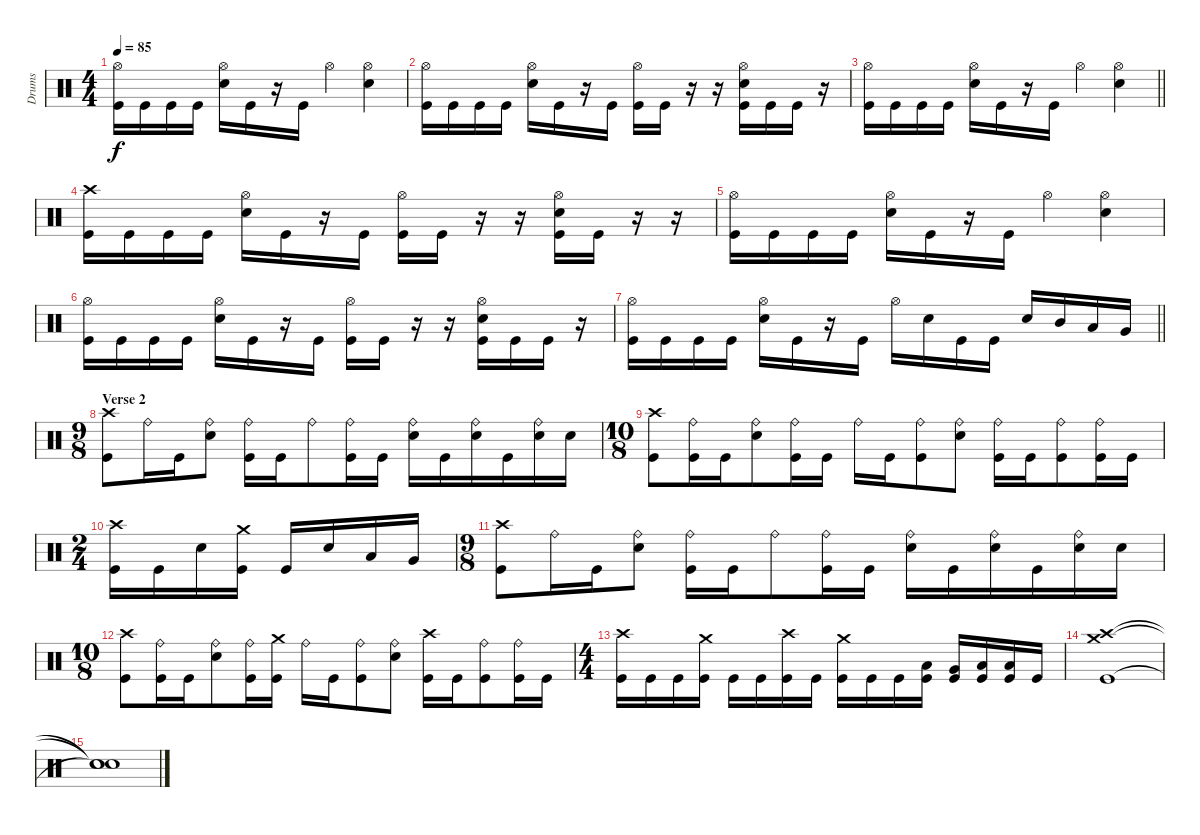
\track ("Drums" "Drums") {instrument percussion}
\staff {score}
\articulation defaults
\ts (4 4)
\tempo 85
\clef neutral
\ks c
("Hi-Hat (open)" "Kick (hit)").16{dy f} "Kick (hit)".16 "Kick (hit)".16 "Kick (hit)".16 ("Hi-Hat (open)" "Snare (hit) 2").16 "Kick (hit)".16 r.16 "Kick (hit)".16 "Hi-Hat (open)".4 ("Hi-Hat (open)" "Snare (hit) 2").4 |
("Hi-Hat (open)" "Kick (hit)").16 "Kick (hit)".16 "Kick (hit)".16 "Kick (hit)".16 ("Hi-Hat (open)" "Snare (hit) 2").16 "Kick (hit)".16 r.16 "Kick (hit)".16 ("Hi-Hat (open)" "Kick (hit)").16 "Kick (hit)".16 r.16 r.16 ("Snare (hit) 2" "Hi-Hat (open)" "Kick (hit)").16 "Kick (hit)".16 "Kick (hit)".16 r.16 |
\barLineRight lightlight
("Hi-Hat (open)" "Kick (hit)").16 "Kick (hit)".16 "Kick (hit)".16 "Kick (hit)".16 ("Hi-Hat (open)" "Snare (hit) 2").16 "Kick (hit)".16 r.16 "Kick (hit)".16 "Hi-Hat (open)".4 ("Hi-Hat (open)" "Snare (hit) 2").4 |
("Crash high (hit)" "Kick (hit)").16 "Kick (hit)".16 "Kick (hit)".16 "Kick (hit)".16 ("Hi-Hat (open)" "Snare (hit) 2").16 "Kick (hit)".16 r.16 "Kick (hit)".16 ("Hi-Hat (open)" "Kick (hit)").16 "Kick (hit)".16 r.16 r.16 ("Snare (hit) 2" "Hi-Hat (open)" "Kick (hit)").16 "Kick (hit)".16 r.16 r.16 |
("Hi-Hat (open)" "Kick (hit)").16 "Kick (hit)".16 "Kick (hit)".16 "Kick (hit)".16 ("Hi-Hat (open)" "Snare (hit) 2").16 "Kick (hit)".16 r.16 "Kick (hit)".16 "Hi-Hat (open)".4 ("Hi-Hat (open)" "Snare (hit) 2").4 |
("Hi-Hat (open)" "Kick (hit)").16 "Kick (hit)".16 "Kick (hit)".16 "Kick (hit)".16 ("Hi-Hat (open)" "Snare (hit) 2").16 "Kick (hit)".16 r.16 "Kick (hit)".16 ("Hi-Hat (open)" "Kick (hit)").16 "Kick (hit)".16 r.16 r.16 ("Snare (hit) 2" "Hi-Hat (open)" "Kick (hit)").16 "Kick (hit)".16 "Kick (hit)".16 r.16 |
\barLineRight lightlight
("Hi-Hat (open)" "Kick (hit)").16 "Kick (hit)".16 "Kick (hit)".16 "Kick (hit)".16 ("Hi-Hat (open)" "Snare (hit) 2").16 "Kick (hit)".16 r.16 "Kick (hit)".16 "Hi-Hat (open)".16 "Snare (hit) 2".16 "Kick (hit)".16 "Kick (hit)".16 "Snare (hit) 2".16 "Mid Tom (hit)".16 "Low Tom (hit)".16 "Very Low Tom (hit)".16 |
\ts (9 8)
\section ("" "Verse 2")
("Crash high (hit)" "Kick (hit)").8 "Ride (bell)".16 "Kick (hit)".16 ("Ride (bell)" "Snare (hit) 2").8 ("Ride (bell)" "Kick (hit)").16 "Kick (hit)".16 "Ride (bell)".8 ("Ride (bell)" "Kick (hit)").16 "Kick (hit)".16 ("Snare (hit) 2" "Ride (bell)").16 "Kick (hit)".16 ("Ride (bell)" "Snare (hit) 2").16 "Kick (hit)".16 ("Ride (bell)" "Snare (hit) 2").16 "Snare (hit) 2".16 |
\ts (10 8)
("Crash high (hit)" "Kick (hit)").8 ("Ride (bell)" "Kick (hit)").16 "Kick (hit)".16 ("Ride (bell)" "Snare (hit) 2").8 ("Ride (bell)" "Kick (hit)").16 "Kick (hit)".16 "Ride (bell)".16 "Kick (hit)".16 ("Ride (bell)" "Kick (hit)").8 ("Ride (bell)" "Snare (hit) 2").8 ("Ride (bell)" "Kick (hit)").16 "Kick (hit)".16 ("Ride (bell)" "Kick (hit)").8 ("Ride (bell)" "Kick (hit)").16 "Kick (hit)".16 |
\ts (2 4)
("Crash high (hit)" "Kick (hit)").16 "Kick (hit)".16 "Snare (hit) 2".16 ("Crash medium (hit)" "Kick (hit)").16 "Kick (hit)".16 "Snare (hit) 2".16 "Low Tom (hit)".16 "Very Low Tom (hit)".16 |
\ts (9 8)
("Crash high (hit)" "Kick (hit)").8 "Ride (bell)".16 "Kick (hit)".16 ("Ride (bell)" "Snare (hit) 2").8 ("Ride (bell)" "Kick (hit)").16 "Kick (hit)".16 "Ride (bell)".8 ("Ride (bell)" "Kick (hit)").16 "Kick (hit)".16 ("Snare (hit) 2" "Ride (bell)").16 "Kick (hit)".16 ("Ride (bell)" "Snare (hit) 2").16 "Kick (hit)".16 ("Ride (bell)" "Snare (hit) 2").16 "Snare (hit) 2".16 |
\ts (10 8)
("Crash high (hit)" "Kick (hit)").8 ("Ride (bell)" "Kick (hit)").16 "Kick (hit)".16 ("Ride (bell)" "Snare (hit) 2").8 ("Ride (bell)" "Kick (hit)").16 ("Crash medium (hit)" "Kick (hit)").16 "Ride (bell)".16 "Kick (hit)".16 ("Ride (bell)" "Kick (hit)").8 ("Ride (bell)" "Snare (hit) 2").8 ("Crash high (hit)" "Kick (hit)").16 "Kick (hit)".16 ("Ride (bell)" "Kick (hit)").8 ("Ride (bell)" "Kick (hit)").16 "Kick (hit)".16 |
\ts (4 4)
("Crash high (hit)" "Kick (hit)").16 "Kick (hit)".16 "Kick (hit)".16 ("Crash medium (hit)" "Kick (hit)").16 "Kick (hit)".16 "Kick (hit)".16 ("Crash high (hit)" "Kick (hit)").16 "Kick (hit)".16 ("Crash medium (hit)" "Kick (hit)").16 "Kick (hit)".16 "Kick (hit)".16 ("Low Tom (hit)" "Kick (hit)").16 ("Very Low Tom (hit)" "Kick (hit)").16 ("Low Floor Tom (hit)" "Kick (hit)").16 ("Low Floor Tom (hit)" "Kick (hit)").16 "Kick (hit)".16 |
("Crash high (hit)" "Kick (hit)" "Crash medium (hit)").1 |
("Snare (hit)"{t} "Snare (hit)"{t} "Snare (hit)"{t}).1
